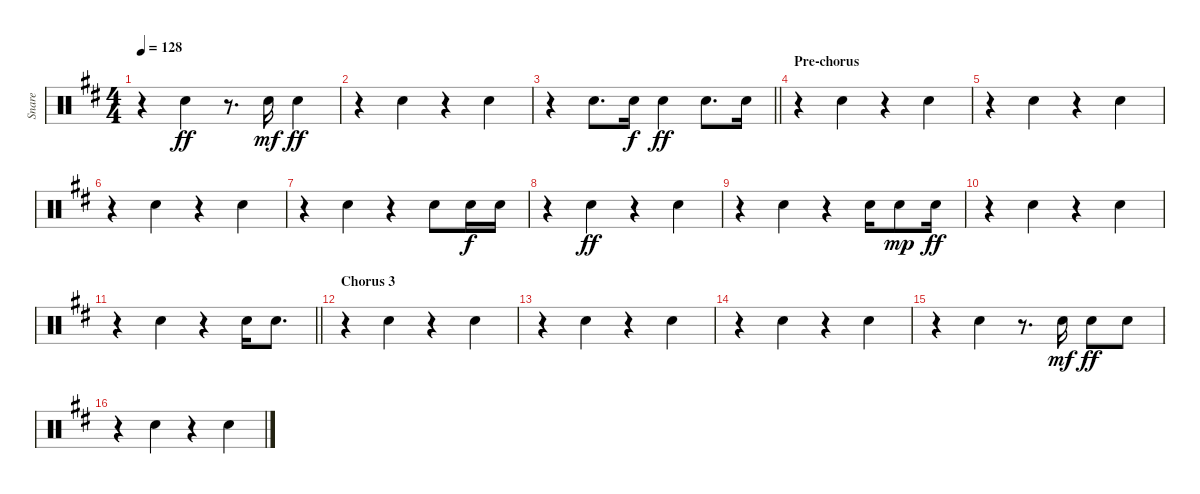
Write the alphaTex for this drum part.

\track ("Snare" "Snare") {instrument percussion}
\staff {score}
\articulation defaults
\ts (4 4)
\tempo 128
\clef neutral
\ks bminor
r.4{dy ff beam merge} "Electric Snare (hit)".4 r.8{d} "Electric Snare (hit)".16{dy mf} "Electric Snare (hit)".4{dy ff} |
r.4{beam merge} "Electric Snare (hit)".4 r.4{beam merge} "Electric Snare (hit)".4 |
\barLineRight lightlight
r.4{beam merge} "Electric Snare (hit)".8{d} "Electric Snare (hit)".16{dy f} "Electric Snare (hit)".4{dy ff} "Electric Snare (hit)".8{d} "Electric Snare (hit)".16 |
\section ("" "Pre-chorus")
r.4{beam merge} "Electric Snare (hit)".4 r.4{beam merge} "Electric Snare (hit)".4 |
r.4{beam merge} "Electric Snare (hit)".4 r.4{beam merge} "Electric Snare (hit)".4 |
r.4{beam merge} "Electric Snare (hit)".4 r.4{beam merge} "Electric Snare (hit)".4 |
r.4 "Electric Snare (hit)".4 r.4 "Electric Snare (hit)".8 "Electric Snare (hit)".16{dy f} "Electric Snare (hit)".16 |
r.4{beam merge} "Electric Snare (hit)".4{dy ff} r.4{beam merge} "Electric Snare (hit)".4 |
r.4 "Electric Snare (hit)".4 r.4 "Electric Snare (hit)".16 "Electric Snare (hit)".8{dy mp} "Electric Snare (hit)".16{dy ff} |
r.4{beam merge} "Electric Snare (hit)".4 r.4{beam merge} "Electric Snare (hit)".4 |
\barLineRight lightlight
r.4 "Electric Snare (hit)".4 r.4 "Electric Snare (hit)".16 "Electric Snare (hit)".8{d} |
\section ("" "Chorus 3")
r.4{beam merge} "Electric Snare (hit)".4 r.4{beam merge} "Electric Snare (hit)".4 |
r.4{beam merge} "Electric Snare (hit)".4 r.4{beam merge} "Electric Snare (hit)".4 |
r.4{beam merge} "Electric Snare (hit)".4 r.4{beam merge} "Electric Snare (hit)".4 |
r.4{beam merge} "Electric Snare (hit)".4 r.8{d} "Electric Snare (hit)".16{dy mf beam split} "Electric Snare (hit)".8{dy ff} "Electric Snare (hit)".8 |
r.4 "Electric Snare (hit)".4 r.4 "Electric Snare (hit)".4
